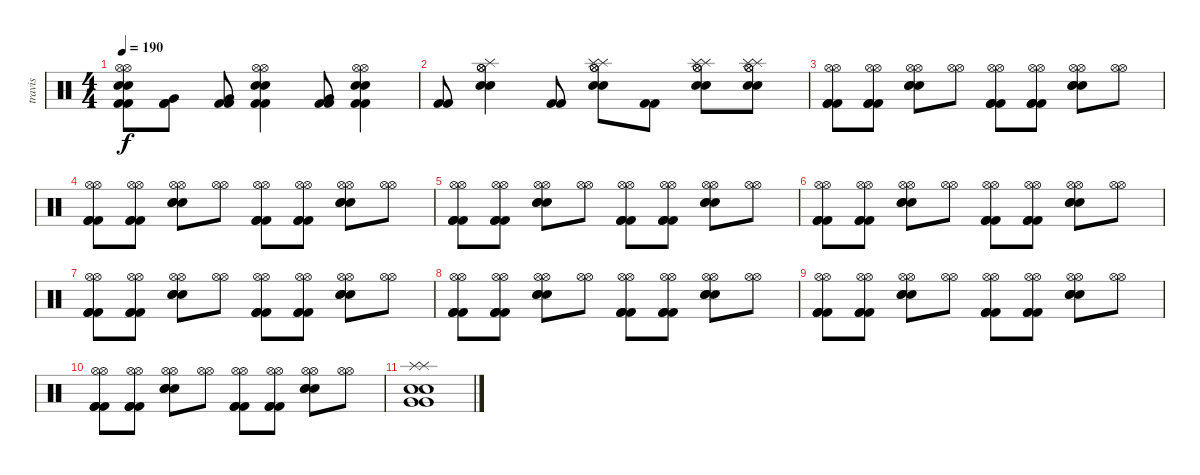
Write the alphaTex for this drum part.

\track ("travis" "travis") {instrument percussion}
\staff {score}
\articulation defaults
\ts (4 4)
\tempo 190
\clef neutral
\ks c
("Kick (hit) 2" "Kick (hit) 2" "Snare (hit) 2" "Snare (hit) 2" "Hi-Hat (open)" "Hi-Hat (open)").8{dy f} ("Kick (hit) 2" "Kick (hit) 2" "Very Low Tom (hit)").8 ("Kick (hit) 2" "Kick (hit) 2" "Very Low Tom (hit)").8 ("Kick (hit) 2" "Kick (hit) 2" "Snare (hit) 2" "Snare (hit) 2" "Hi-Hat (open)" "Hi-Hat (open)").4 ("Kick (hit) 2" "Kick (hit) 2" "Very Low Tom (hit)").8 ("Kick (hit) 2" "Kick (hit) 2" "Snare (hit) 2" "Snare (hit) 2" "Hi-Hat (open)" "Hi-Hat (open)").4 |
("Kick (hit) 2" "Kick (hit) 2").8 ("Snare (hit) 2" "Snare (hit) 2" "Hi-Hat (open)" "Hi-Hat (open)" "Splash (hit)").4 ("Kick (hit) 2" "Kick (hit) 2").8 ("Snare (hit) 2" "Snare (hit) 2" "Hi-Hat (open)" "Hi-Hat (open)" "Splash (hit)" "Splash (hit)").8 ("Kick (hit) 2" "Kick (hit) 2").8 ("Snare (hit) 2" "Snare (hit) 2" "Hi-Hat (open)" "Hi-Hat (open)" "Splash (hit)" "Splash (hit)").8 ("Snare (hit) 2" "Snare (hit) 2" "Hi-Hat (open)" "Hi-Hat (open)" "Splash (hit)" "Splash (hit)").8 |
("Kick (hit) 2" "Kick (hit) 2" "Kick (hit) 2" "Hi-Hat (open)" "Hi-Hat (open)").8 ("Kick (hit) 2" "Kick (hit) 2" "Kick (hit) 2" "Hi-Hat (open)" "Hi-Hat (open)").8 ("Snare (hit) 2" "Snare (hit) 2" "Snare (hit) 2" "Hi-Hat (open)" "Hi-Hat (open)").8 ("Hi-Hat (open)" "Hi-Hat (open)").8 ("Kick (hit) 2" "Kick (hit) 2" "Kick (hit) 2" "Hi-Hat (open)" "Hi-Hat (open)").8 ("Kick (hit) 2" "Kick (hit) 2" "Kick (hit) 2" "Hi-Hat (open)" "Hi-Hat (open)").8 ("Snare (hit) 2" "Snare (hit) 2" "Snare (hit) 2" "Hi-Hat (open)" "Hi-Hat (open)").8 ("Hi-Hat (open)" "Hi-Hat (open)").8 |
("Kick (hit) 2" "Kick (hit) 2" "Kick (hit) 2" "Hi-Hat (open)" "Hi-Hat (open)").8 ("Kick (hit) 2" "Kick (hit) 2" "Kick (hit) 2" "Hi-Hat (open)" "Hi-Hat (open)").8 ("Snare (hit) 2" "Snare (hit) 2" "Snare (hit) 2" "Hi-Hat (open)" "Hi-Hat (open)").8 ("Hi-Hat (open)" "Hi-Hat (open)").8 ("Kick (hit) 2" "Kick (hit) 2" "Kick (hit) 2" "Hi-Hat (open)" "Hi-Hat (open)").8 ("Kick (hit) 2" "Kick (hit) 2" "Kick (hit) 2" "Hi-Hat (open)" "Hi-Hat (open)").8 ("Snare (hit) 2" "Snare (hit) 2" "Snare (hit) 2" "Hi-Hat (open)" "Hi-Hat (open)").8 ("Hi-Hat (open)" "Hi-Hat (open)").8 |
("Kick (hit) 2" "Kick (hit) 2" "Kick (hit) 2" "Hi-Hat (open)" "Hi-Hat (open)").8 ("Kick (hit) 2" "Kick (hit) 2" "Kick (hit) 2" "Hi-Hat (open)" "Hi-Hat (open)").8 ("Snare (hit) 2" "Snare (hit) 2" "Snare (hit) 2" "Hi-Hat (open)" "Hi-Hat (open)").8 ("Hi-Hat (open)" "Hi-Hat (open)").8 ("Kick (hit) 2" "Kick (hit) 2" "Kick (hit) 2" "Hi-Hat (open)" "Hi-Hat (open)").8 ("Kick (hit) 2" "Kick (hit) 2" "Kick (hit) 2" "Hi-Hat (open)" "Hi-Hat (open)").8 ("Snare (hit) 2" "Snare (hit) 2" "Snare (hit) 2" "Hi-Hat (open)" "Hi-Hat (open)").8 ("Hi-Hat (open)" "Hi-Hat (open)").8 |
("Kick (hit) 2" "Kick (hit) 2" "Kick (hit) 2" "Hi-Hat (open)" "Hi-Hat (open)").8 ("Kick (hit) 2" "Kick (hit) 2" "Kick (hit) 2" "Hi-Hat (open)" "Hi-Hat (open)").8 ("Snare (hit) 2" "Snare (hit) 2" "Snare (hit) 2" "Hi-Hat (open)" "Hi-Hat (open)").8 ("Hi-Hat (open)" "Hi-Hat (open)").8 ("Kick (hit) 2" "Kick (hit) 2" "Kick (hit) 2" "Hi-Hat (open)" "Hi-Hat (open)").8 ("Kick (hit) 2" "Kick (hit) 2" "Kick (hit) 2" "Hi-Hat (open)" "Hi-Hat (open)").8 ("Snare (hit) 2" "Snare (hit) 2" "Snare (hit) 2" "Hi-Hat (open)" "Hi-Hat (open)").8 ("Hi-Hat (open)" "Hi-Hat (open)").8 |
("Kick (hit) 2" "Kick (hit) 2" "Kick (hit) 2" "Hi-Hat (open)" "Hi-Hat (open)").8 ("Kick (hit) 2" "Kick (hit) 2" "Kick (hit) 2" "Hi-Hat (open)" "Hi-Hat (open)").8 ("Snare (hit) 2" "Snare (hit) 2" "Snare (hit) 2" "Hi-Hat (open)" "Hi-Hat (open)").8 ("Hi-Hat (open)" "Hi-Hat (open)").8 ("Kick (hit) 2" "Kick (hit) 2" "Kick (hit) 2" "Hi-Hat (open)" "Hi-Hat (open)").8 ("Kick (hit) 2" "Kick (hit) 2" "Kick (hit) 2" "Hi-Hat (open)" "Hi-Hat (open)").8 ("Snare (hit) 2" "Snare (hit) 2" "Snare (hit) 2" "Hi-Hat (open)" "Hi-Hat (open)").8 ("Hi-Hat (open)" "Hi-Hat (open)").8 |
("Kick (hit) 2" "Kick (hit) 2" "Kick (hit) 2" "Hi-Hat (open)" "Hi-Hat (open)").8 ("Kick (hit) 2" "Kick (hit) 2" "Kick (hit) 2" "Hi-Hat (open)" "Hi-Hat (open)").8 ("Snare (hit) 2" "Snare (hit) 2" "Snare (hit) 2" "Hi-Hat (open)" "Hi-Hat (open)").8 ("Hi-Hat (open)" "Hi-Hat (open)").8 ("Kick (hit) 2" "Kick (hit) 2" "Kick (hit) 2" "Hi-Hat (open)" "Hi-Hat (open)").8 ("Kick (hit) 2" "Kick (hit) 2" "Kick (hit) 2" "Hi-Hat (open)" "Hi-Hat (open)").8 ("Snare (hit) 2" "Snare (hit) 2" "Snare (hit) 2" "Hi-Hat (open)" "Hi-Hat (open)").8 ("Hi-Hat (open)" "Hi-Hat (open)").8 |
("Kick (hit) 2" "Kick (hit) 2" "Kick (hit) 2" "Hi-Hat (open)" "Hi-Hat (open)").8 ("Kick (hit) 2" "Kick (hit) 2" "Kick (hit) 2" "Hi-Hat (open)" "Hi-Hat (open)").8 ("Snare (hit) 2" "Snare (hit) 2" "Snare (hit) 2" "Hi-Hat (open)" "Hi-Hat (open)").8 ("Hi-Hat (open)" "Hi-Hat (open)").8 ("Kick (hit) 2" "Kick (hit) 2" "Kick (hit) 2" "Hi-Hat (open)" "Hi-Hat (open)").8 ("Kick (hit) 2" "Kick (hit) 2" "Kick (hit) 2" "Hi-Hat (open)" "Hi-Hat (open)").8 ("Snare (hit) 2" "Snare (hit) 2" "Snare (hit) 2" "Hi-Hat (open)" "Hi-Hat (open)").8 ("Hi-Hat (open)" "Hi-Hat (open)").8 |
("Kick (hit) 2" "Kick (hit) 2" "Kick (hit) 2" "Hi-Hat (open)" "Hi-Hat (open)").8 ("Kick (hit) 2" "Kick (hit) 2" "Kick (hit) 2" "Hi-Hat (open)" "Hi-Hat (open)").8 ("Snare (hit) 2" "Snare (hit) 2" "Snare (hit) 2" "Hi-Hat (open)" "Hi-Hat (open)").8 ("Hi-Hat (open)" "Hi-Hat (open)").8 ("Kick (hit) 2" "Kick (hit) 2" "Kick (hit) 2" "Hi-Hat (open)" "Hi-Hat (open)").8 ("Kick (hit) 2" "Kick (hit) 2" "Kick (hit) 2" "Hi-Hat (open)" "Hi-Hat (open)").8 ("Snare (hit) 2" "Snare (hit) 2" "Snare (hit) 2" "Hi-Hat (open)" "Hi-Hat (open)").8 ("Hi-Hat (open)" "Hi-Hat (open)").8 |
("Snare (hit) 2" "Snare (hit) 2" "Very Low Tom (hit)" "Very Low Tom (hit)" "Splash (hit)" "Splash (hit)").1
